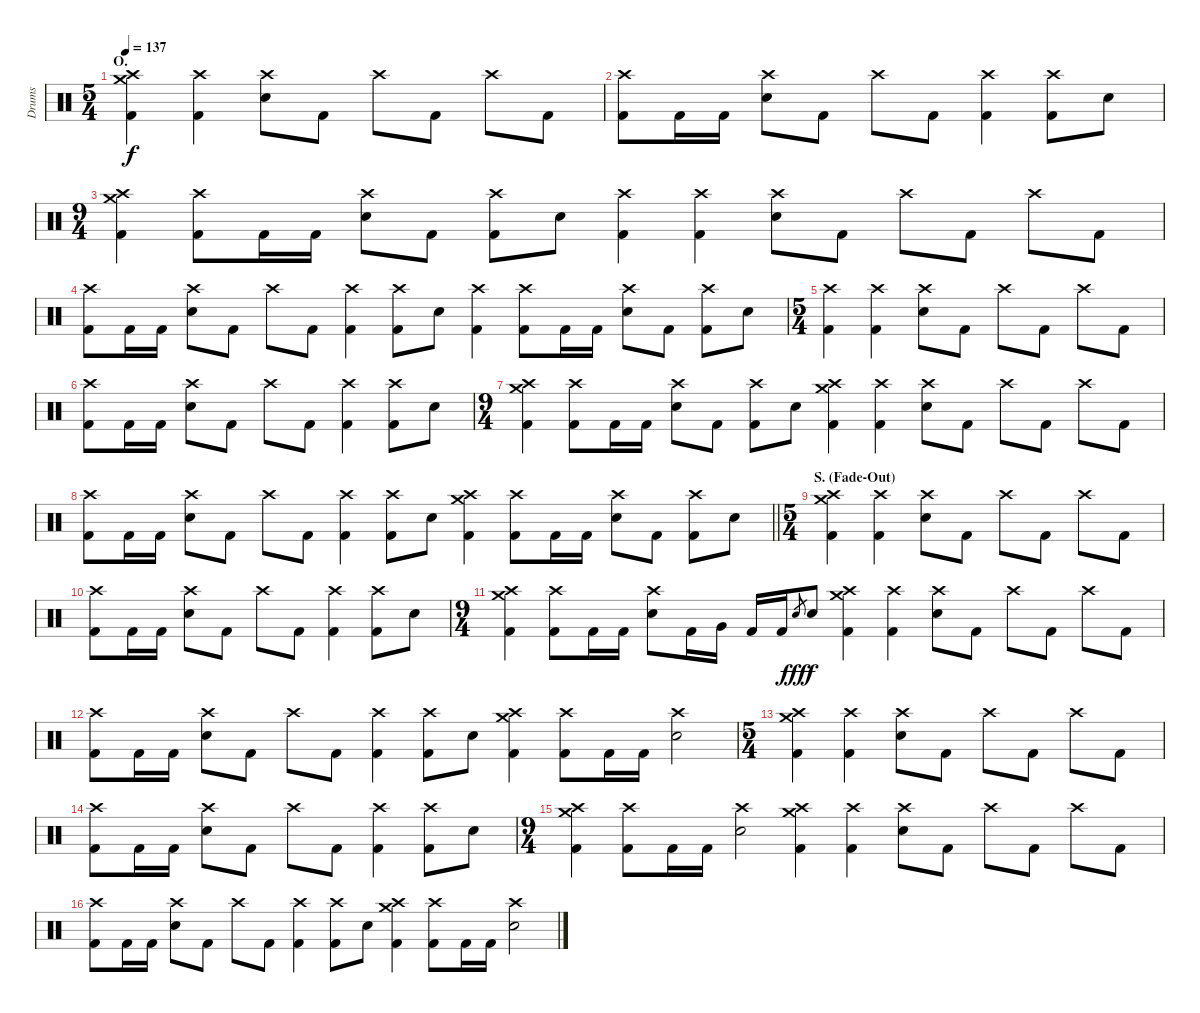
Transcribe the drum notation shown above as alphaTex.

\track ("Drums" "Drums") {instrument percussion}
\staff {score}
\articulation defaults
\ts (5 4)
\section ("" "O.")
\tempo 137
\clef neutral
\ks c
("Crash medium (hit)" "Crash high (hit)" "Kick (hit) 2").4{dy f} ("Crash high (hit)" "Kick (hit) 2").4 ("Crash high (hit)" "Electric Snare (hit)").8 "Kick (hit) 2".8 "Crash high (hit)".8 "Kick (hit) 2".8 "Crash high (hit)".8 "Kick (hit) 2".8 |
("Crash high (hit)" "Kick (hit) 2").8 "Kick (hit) 2".16 "Kick (hit) 2".16 ("Crash high (hit)" "Electric Snare (hit)").8 "Kick (hit) 2".8 "Crash high (hit)".8 "Kick (hit) 2".8 ("Crash high (hit)" "Kick (hit) 2").4 ("Crash high (hit)" "Kick (hit) 2").8 "Electric Snare (hit)".8 |
\ts (9 4)
("Crash medium (hit)" "Crash high (hit)" "Kick (hit) 2").4 ("Crash high (hit)" "Kick (hit) 2").8 "Kick (hit) 2".16 "Kick (hit) 2".16 ("Crash high (hit)" "Electric Snare (hit)").8 "Kick (hit) 2".8 ("Crash high (hit)" "Kick (hit) 2").8 "Electric Snare (hit)".8 ("Crash high (hit)" "Kick (hit) 2").4 ("Crash high (hit)" "Kick (hit) 2").4 ("Crash high (hit)" "Electric Snare (hit)").8 "Kick (hit) 2".8 "Crash high (hit)".8 "Kick (hit) 2".8 "Crash high (hit)".8 "Kick (hit) 2".8 |
("Crash high (hit)" "Kick (hit) 2").8 "Kick (hit) 2".16 "Kick (hit) 2".16 ("Crash high (hit)" "Electric Snare (hit)").8 "Kick (hit) 2".8 "Crash high (hit)".8 "Kick (hit) 2".8 ("Crash high (hit)" "Kick (hit) 2").4 ("Crash high (hit)" "Kick (hit) 2").8 "Electric Snare (hit)".8 ("Crash high (hit)" "Kick (hit) 2").4 ("Crash high (hit)" "Kick (hit) 2").8 "Kick (hit) 2".16 "Kick (hit) 2".16 ("Crash high (hit)" "Electric Snare (hit)").8 "Kick (hit) 2".8 ("Crash high (hit)" "Kick (hit) 2").8 "Electric Snare (hit)".8 |
\ts (5 4)
("Crash high (hit)" "Kick (hit) 2").4 ("Crash high (hit)" "Kick (hit) 2").4 ("Crash high (hit)" "Electric Snare (hit)").8 "Kick (hit) 2".8 "Crash high (hit)".8 "Kick (hit) 2".8 "Crash high (hit)".8 "Kick (hit) 2".8 |
("Crash high (hit)" "Kick (hit) 2").8 "Kick (hit) 2".16 "Kick (hit) 2".16 ("Crash high (hit)" "Electric Snare (hit)").8 "Kick (hit) 2".8 "Crash high (hit)".8 "Kick (hit) 2".8 ("Crash high (hit)" "Kick (hit) 2").4 ("Crash high (hit)" "Kick (hit) 2").8 "Electric Snare (hit)".8 |
\ts (9 4)
("Crash medium (hit)" "Crash high (hit)" "Kick (hit) 2").4 ("Crash high (hit)" "Kick (hit) 2").8 "Kick (hit) 2".16 "Kick (hit) 2".16 ("Crash high (hit)" "Electric Snare (hit)").8 "Kick (hit) 2".8 ("Crash high (hit)" "Kick (hit) 2").8 "Electric Snare (hit)".8 ("Crash medium (hit)" "Crash high (hit)" "Kick (hit) 2").4 ("Crash high (hit)" "Kick (hit) 2").4 ("Crash high (hit)" "Electric Snare (hit)").8 "Kick (hit) 2".8 "Crash high (hit)".8 "Kick (hit) 2".8 "Crash high (hit)".8 "Kick (hit) 2".8 |
\barLineRight lightlight
("Crash high (hit)" "Kick (hit) 2").8 "Kick (hit) 2".16 "Kick (hit) 2".16 ("Crash high (hit)" "Electric Snare (hit)").8 "Kick (hit) 2".8 "Crash high (hit)".8 "Kick (hit) 2".8 ("Crash high (hit)" "Kick (hit) 2").4 ("Crash high (hit)" "Kick (hit) 2").8 "Electric Snare (hit)".8 ("Crash medium (hit)" "Crash high (hit)" "Kick (hit) 2").4 ("Crash high (hit)" "Kick (hit) 2").8 "Kick (hit) 2".16 "Kick (hit) 2".16 ("Crash high (hit)" "Electric Snare (hit)").8 "Kick (hit) 2".8 ("Crash high (hit)" "Kick (hit) 2").8 "Electric Snare (hit)".8 |
\ts (5 4)
\section ("" "S. (Fade-Out)")
("Crash medium (hit)" "Crash high (hit)" "Kick (hit) 2").4 ("Crash high (hit)" "Kick (hit) 2").4 ("Crash high (hit)" "Electric Snare (hit)").8 "Kick (hit) 2".8 "Crash high (hit)".8 "Kick (hit) 2".8 "Crash high (hit)".8 "Kick (hit) 2".8 |
("Crash high (hit)" "Kick (hit) 2").8 "Kick (hit) 2".16 "Kick (hit) 2".16 ("Crash high (hit)" "Electric Snare (hit)").8 "Kick (hit) 2".8 "Crash high (hit)".8 "Kick (hit) 2".8 ("Crash high (hit)" "Kick (hit) 2").4 ("Crash high (hit)" "Kick (hit) 2").8 "Electric Snare (hit)".8 |
\ts (9 4)
("Crash medium (hit)" "Crash high (hit)" "Kick (hit) 2").4 ("Crash high (hit)" "Kick (hit) 2").8 "Kick (hit) 2".16 "Kick (hit) 2".16 ("Crash high (hit)" "Electric Snare (hit)").8 "Kick (hit) 2".16 "Very Low Tom (hit)".16 "Kick (hit) 2".16 "Kick (hit) 2".16 "Electric Snare (hit)".8{gr dy fff} "Electric Snare (hit)".8{dy f} ("Crash medium (hit)" "Crash high (hit)" "Kick (hit) 2").4{volume 10} ("Crash high (hit)" "Kick (hit) 2").4 ("Crash high (hit)" "Electric Snare (hit)").8 "Kick (hit) 2".8 "Crash high (hit)".8 "Kick (hit) 2".8 "Crash high (hit)".8 "Kick (hit) 2".8 |
("Crash high (hit)" "Kick (hit) 2").8 "Kick (hit) 2".16 "Kick (hit) 2".16 ("Crash high (hit)" "Electric Snare (hit)").8 "Kick (hit) 2".8 "Crash high (hit)".8 "Kick (hit) 2".8 ("Crash high (hit)" "Kick (hit) 2").4 ("Crash high (hit)" "Kick (hit) 2").8 "Electric Snare (hit)".8 ("Crash medium (hit)" "Crash high (hit)" "Kick (hit) 2").4 ("Crash high (hit)" "Kick (hit) 2").8 "Kick (hit) 2".16 "Kick (hit) 2".16 ("Crash high (hit)" "Electric Snare (hit)").2 |
\ts (5 4)
("Crash medium (hit)" "Crash high (hit)" "Kick (hit) 2").4{volume 6} ("Crash high (hit)" "Kick (hit) 2").4 ("Crash high (hit)" "Electric Snare (hit)").8 "Kick (hit) 2".8 "Crash high (hit)".8 "Kick (hit) 2".8 "Crash high (hit)".8 "Kick (hit) 2".8 |
("Crash high (hit)" "Kick (hit) 2").8 "Kick (hit) 2".16 "Kick (hit) 2".16 ("Crash high (hit)" "Electric Snare (hit)").8 "Kick (hit) 2".8 "Crash high (hit)".8 "Kick (hit) 2".8 ("Crash high (hit)" "Kick (hit) 2").4 ("Crash high (hit)" "Kick (hit) 2").8 "Electric Snare (hit)".8 |
\ts (9 4)
("Crash medium (hit)" "Crash high (hit)" "Kick (hit) 2").4 ("Crash high (hit)" "Kick (hit) 2").8 "Kick (hit) 2".16 "Kick (hit) 2".16 ("Crash high (hit)" "Electric Snare (hit)").2 ("Crash medium (hit)" "Crash high (hit)" "Kick (hit) 2").4{volume 0} ("Crash high (hit)" "Kick (hit) 2").4 ("Crash high (hit)" "Electric Snare (hit)").8 "Kick (hit) 2".8 "Crash high (hit)".8 "Kick (hit) 2".8 "Crash high (hit)".8 "Kick (hit) 2".8 |
("Crash high (hit)" "Kick (hit) 2").8 "Kick (hit) 2".16 "Kick (hit) 2".16 ("Crash high (hit)" "Electric Snare (hit)").8 "Kick (hit) 2".8 "Crash high (hit)".8 "Kick (hit) 2".8 ("Crash high (hit)" "Kick (hit) 2").4 ("Crash high (hit)" "Kick (hit) 2").8 "Electric Snare (hit)".8 ("Crash medium (hit)" "Crash high (hit)" "Kick (hit) 2").4 ("Crash high (hit)" "Kick (hit) 2").8 "Kick (hit) 2".16 "Kick (hit) 2".16 ("Crash high (hit)" "Electric Snare (hit)").2
